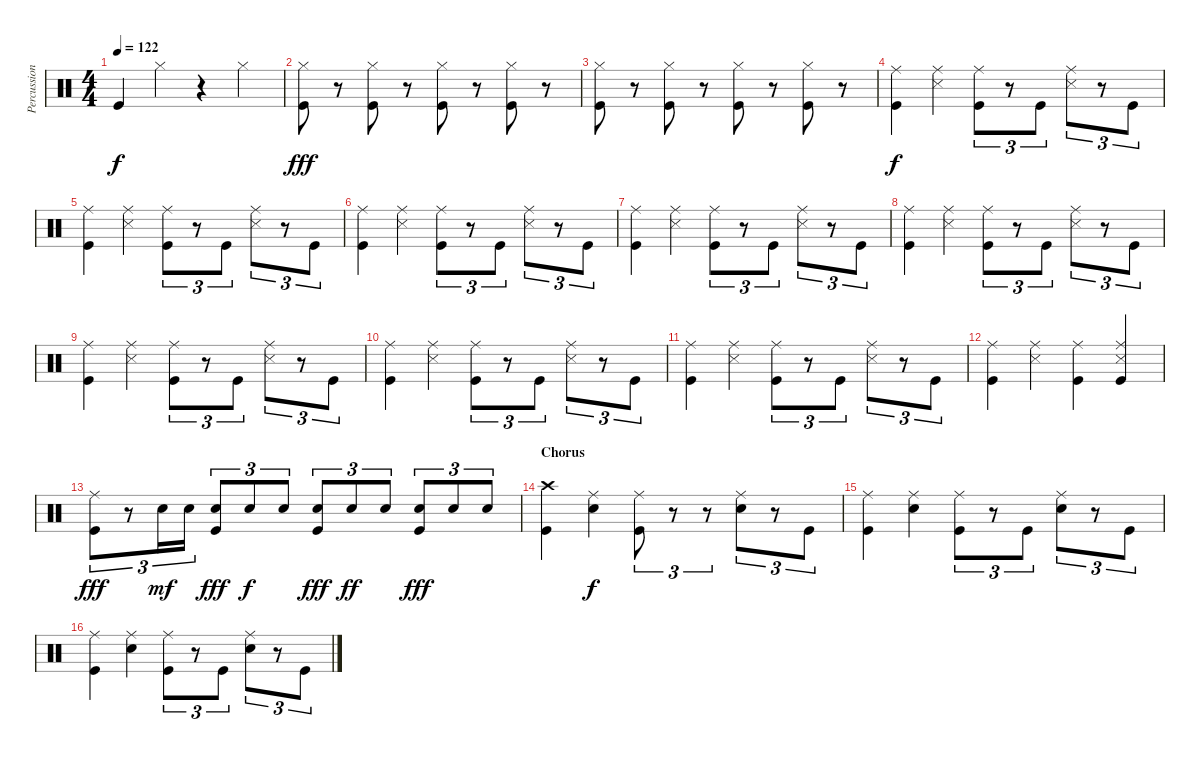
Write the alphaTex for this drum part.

\track ("Percussion" "Percussion") {instrument percussion}
\staff {score}
\articulation defaults
\ts (4 4)
\tempo 122
\clef neutral
\ks c "Kick (hit)".4{dy f} "Hi-Hat (closed)".4
r.4 "Hi-Hat (closed)".4 |
("Hi-Hat (closed)" "Kick (hit)").8{dy fff} r.8 ("Hi-Hat (closed)" "Kick (hit)").8 r.8 ("Hi-Hat (closed)" "Kick (hit)").8 r.8 ("Hi-Hat (closed)" "Kick (hit)").8 r.8 |
("Hi-Hat (closed)" "Kick (hit)").8 r.8 ("Hi-Hat (closed)" "Kick (hit)").8 r.8 ("Hi-Hat (closed)" "Kick (hit)").8 r.8 ("Hi-Hat (closed)" "Kick (hit)").8 r.8 |
("Ride (middle)" "Kick (hit)").4{dy f} ("Ride (middle)" "Snare (side stick) 3").4 ("Ride (middle)" "Kick (hit)").8{tu (3 2)} r.8{tu (3 2)} "Kick (hit)".8{tu (3 2)} ("Ride (middle)" "Snare (side stick) 3").8{tu (3 2)} r.8{tu (3 2)} "Kick (hit)".8{tu (3 2)} |
("Ride (middle)" "Kick (hit)").4 ("Ride (middle)" "Snare (side stick) 3").4 ("Ride (middle)" "Kick (hit)").8{tu (3 2)} r.8{tu (3 2)} "Kick (hit)".8{tu (3 2)} ("Ride (middle)" "Snare (side stick) 3").8{tu (3 2)} r.8{tu (3 2)} "Kick (hit)".8{tu (3 2)} |
("Ride (middle)" "Kick (hit)").4 ("Ride (middle)" "Snare (side stick) 3").4 ("Ride (middle)" "Kick (hit)").8{tu (3 2)} r.8{tu (3 2)} "Kick (hit)".8{tu (3 2)} ("Ride (middle)" "Snare (side stick) 3").8{tu (3 2)} r.8{tu (3 2)} "Kick (hit)".8{tu (3 2)} |
("Ride (middle)" "Kick (hit)").4 ("Ride (middle)" "Snare (side stick) 3").4 ("Ride (middle)" "Kick (hit)").8{tu (3 2)} r.8{tu (3 2)} "Kick (hit)".8{tu (3 2)} ("Ride (middle)" "Snare (side stick) 3").8{tu (3 2)} r.8{tu (3 2)} "Kick (hit)".8{tu (3 2)} |
("Ride (middle)" "Kick (hit)").4 ("Ride (middle)" "Snare (side stick) 3").4 ("Ride (middle)" "Kick (hit)").8{tu (3 2)} r.8{tu (3 2)} "Kick (hit)".8{tu (3 2)} ("Ride (middle)" "Snare (side stick) 3").8{tu (3 2)} r.8{tu (3 2)} "Kick (hit)".8{tu (3 2)} |
("Ride (middle)" "Kick (hit)").4 ("Ride (middle)" "Snare (side stick) 3").4 ("Ride (middle)" "Kick (hit)").8{tu (3 2)} r.8{tu (3 2)} "Kick (hit)".8{tu (3 2)} ("Ride (middle)" "Snare (side stick) 3").8{tu (3 2)} r.8{tu (3 2)} "Kick (hit)".8{tu (3 2)} |
("Ride (middle)" "Kick (hit)").4 ("Ride (middle)" "Snare (side stick) 3").4 ("Ride (middle)" "Kick (hit)").8{tu (3 2)} r.8{tu (3 2)} "Kick (hit)".8{tu (3 2)} ("Ride (middle)" "Snare (side stick) 3").8{tu (3 2)} r.8{tu (3 2)} "Kick (hit)".8{tu (3 2)} |
("Ride (middle)" "Kick (hit)").4 ("Ride (middle)" "Snare (side stick) 3").4 ("Ride (middle)" "Kick (hit)").8{tu (3 2)} r.8{tu (3 2)} "Kick (hit)".8{tu (3 2)} ("Ride (middle)" "Snare (side stick) 3").8{tu (3 2)} r.8{tu (3 2)} "Kick (hit)".8{tu (3 2)} |
("Ride (middle)" "Kick (hit)").4{volume 12} ("Ride (middle)" "Snare (side stick) 3").4 ("Ride (middle)" "Kick (hit)").4 ("Ride (middle)" "Snare (side stick) 3" "Kick (hit)").4 |
("Ride (middle)" "Kick (hit)").8{tu (3 2) dy fff} r.8{tu (3 2)} "Electric Snare (hit)".16{tu (3 2) dy mf volume 14} "Electric Snare (hit)".16{tu (3 2)} ("Electric Snare (hit)" "Kick (hit)").8{tu (3 2) dy fff} "Electric Snare (hit)".8{tu (3 2) dy f} "Electric Snare (hit)".8{tu (3 2)} ("Electric Snare (hit)" "Kick (hit)").8{tu (3 2) dy fff} "Electric Snare (hit)".8{tu (3 2) dy ff} "Electric Snare (hit)".8{tu (3 2)} ("Electric Snare (hit)" "Kick (hit)").8{tu (3 2) dy fff} "Electric Snare (hit)".8{tu (3 2)} "Electric Snare (hit)".8{tu (3 2)} |
\section ("" "Chorus")
("Crash high (hit)" "Kick (hit)").4 ("Ride (middle)" "Electric Snare (hit)").4{dy f} ("Ride (middle)" "Kick (hit)").8{tu (3 2)} r.8{tu (3 2)} r.8{tu (3 2)} ("Ride (middle)" "Electric Snare (hit)").8{tu (3 2)} r.8{tu (3 2)} "Kick (hit)".8{tu (3 2)} |
("Ride (middle)" "Kick (hit)").4 ("Ride (middle)" "Electric Snare (hit)").4 ("Ride (middle)" "Kick (hit)").8{tu (3 2)} r.8{tu (3 2)} "Kick (hit)".8{tu (3 2)} ("Ride (middle)" "Electric Snare (hit)").8{tu (3 2)} r.8{tu (3 2)} "Kick (hit)".8{tu (3 2)} |
("Ride (middle)" "Kick (hit)").4 ("Ride (middle)" "Electric Snare (hit)").4 ("Ride (middle)" "Kick (hit)").8{tu (3 2)} r.8{tu (3 2)} "Kick (hit)".8{tu (3 2)} ("Ride (middle)" "Electric Snare (hit)").8{tu (3 2)} r.8{tu (3 2)} "Kick (hit)".8{tu (3 2)}
